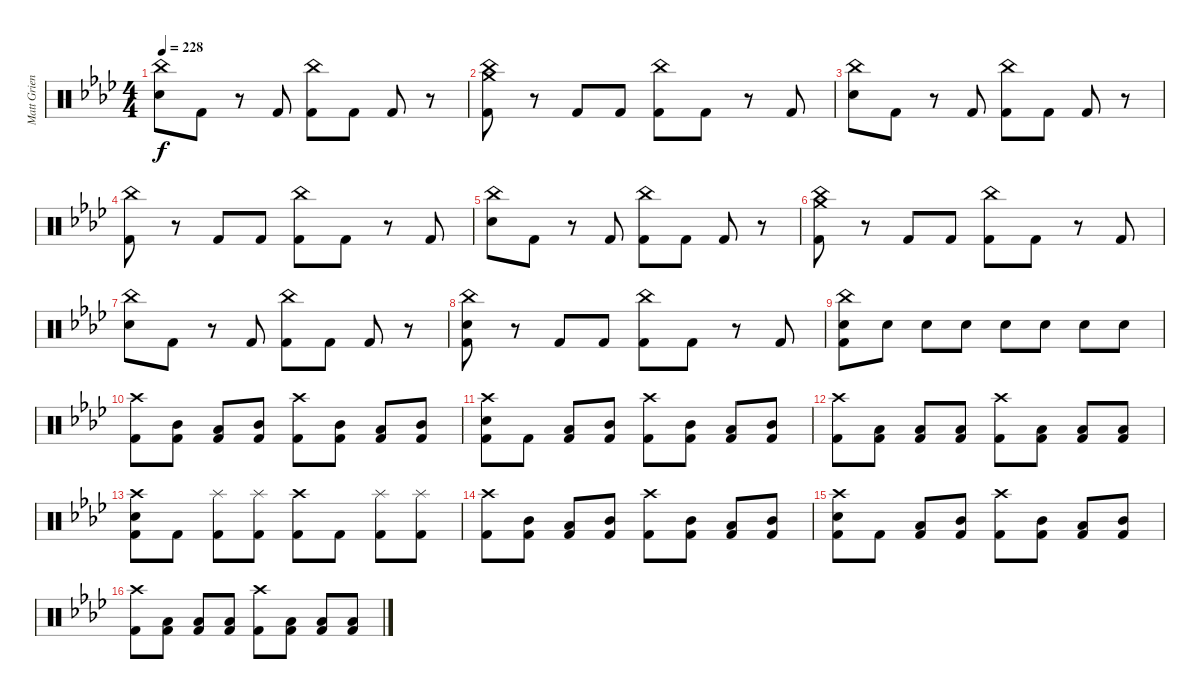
\track ("Matt Griener [Drum Kit]" "Matt Grien") {instrument percussion}
\staff {score}
\articulation defaults
\ts (4 4)
\tempo 228
\clef neutral
\ks fminor
("China (hit)" "Electric Snare (hit)").8{dy f} "Kick (hit) 2".8 r.8 "Kick (hit) 2".8 ("China (hit)" "Kick (hit) 2").8 "Kick (hit) 2".8 "Kick (hit) 2".8 r.8 |
("Crash medium (hit)" "China (hit)" "Kick (hit) 2").8 r.8 "Kick (hit) 2".8 "Kick (hit) 2".8 ("China (hit)" "Kick (hit) 2").8 "Kick (hit) 2".8 r.8 "Kick (hit) 2".8 |
("China (hit)" "Electric Snare (hit)").8 "Kick (hit) 2".8 r.8 "Kick (hit) 2".8 ("China (hit)" "Kick (hit) 2").8 "Kick (hit) 2".8 "Kick (hit) 2".8 r.8 |
("China (hit)" "Kick (hit) 2").8 r.8 "Kick (hit) 2".8 "Kick (hit) 2".8 ("China (hit)" "Kick (hit) 2").8 "Kick (hit) 2".8 r.8 "Kick (hit) 2".8 |
("China (hit)" "Electric Snare (hit)").8 "Kick (hit) 2".8 r.8 "Kick (hit) 2".8 ("China (hit)" "Kick (hit) 2").8 "Kick (hit) 2".8 "Kick (hit) 2".8 r.8 |
("Crash medium (hit)" "China (hit)" "Kick (hit) 2").8 r.8 "Kick (hit) 2".8 "Kick (hit) 2".8 ("China (hit)" "Kick (hit) 2").8 "Kick (hit) 2".8 r.8 "Kick (hit) 2".8 |
("China (hit)" "Electric Snare (hit)").8 "Kick (hit) 2".8 r.8 "Kick (hit) 2".8 ("China (hit)" "Kick (hit) 2").8 "Kick (hit) 2".8 "Kick (hit) 2".8 r.8 |
("China (hit)" "Electric Snare (hit)" "Kick (hit) 2").8 r.8 "Kick (hit) 2".8 "Kick (hit) 2".8 ("China (hit)" "Kick (hit) 2").8 "Kick (hit) 2".8 r.8 "Kick (hit) 2".8 |
("China (hit)" "Electric Snare (hit)" "Kick (hit) 2").8 "Electric Snare (hit)".8 "Electric Snare (hit)".8 "Electric Snare (hit)".8 "Electric Snare (hit)".8 "Electric Snare (hit)".8 "Electric Snare (hit)".8 "Electric Snare (hit)".8 |
("Crash high (hit)" "Kick (hit) 2").8 ("Mid Tom (hit)" "Kick (hit) 2").8 ("Low Tom (hit)" "Kick (hit) 2").8 ("Mid Tom (hit)" "Kick (hit) 2").8 ("Crash high (hit)" "Kick (hit) 2").8 ("Mid Tom (hit)" "Kick (hit) 2").8 ("Low Tom (hit)" "Kick (hit) 2").8 ("Mid Tom (hit)" "Kick (hit) 2").8 |
("Crash high (hit)" "Electric Snare (hit)" "Kick (hit) 2").8 "Kick (hit) 2".8 ("Low Tom (hit)" "Kick (hit) 2").8 ("Mid Tom (hit)" "Kick (hit) 2").8 ("Crash high (hit)" "Kick (hit) 2").8 ("Mid Tom (hit)" "Kick (hit) 2").8 ("Low Tom (hit)" "Kick (hit) 2").8 ("Mid Tom (hit)" "Kick (hit) 2").8 |
("Crash high (hit)" "Kick (hit) 2").8 ("Low Tom (hit)" "Kick (hit) 2").8 ("Low Floor Tom (hit)" "Kick (hit) 2").8 ("Low Tom (hit)" "Kick (hit) 2").8 ("Crash high (hit)" "Kick (hit) 2").8 ("Low Tom (hit)" "Kick (hit) 2").8 ("Low Floor Tom (hit)" "Kick (hit) 2").8 ("Low Tom (hit)" "Kick (hit) 2").8 |
("Crash high (hit)" "Electric Snare (hit)" "Kick (hit) 2").8 "Kick (hit) 2".8 ("Splash (hit)" "Kick (hit) 2").8 ("Splash (hit)" "Kick (hit) 2").8 ("Crash high (hit)" "Kick (hit) 2").8 "Kick (hit) 2".8 ("Splash (hit)" "Kick (hit) 2").8 ("Splash (hit)" "Kick (hit) 2").8 |
("Crash high (hit)" "Kick (hit) 2").8 ("Mid Tom (hit)" "Kick (hit) 2").8 ("Low Tom (hit)" "Kick (hit) 2").8 ("Mid Tom (hit)" "Kick (hit) 2").8 ("Crash high (hit)" "Kick (hit) 2").8 ("Mid Tom (hit)" "Kick (hit) 2").8 ("Low Tom (hit)" "Kick (hit) 2").8 ("Mid Tom (hit)" "Kick (hit) 2").8 |
("Crash high (hit)" "Electric Snare (hit)" "Kick (hit) 2").8 "Kick (hit) 2".8 ("Low Tom (hit)" "Kick (hit) 2").8 ("Mid Tom (hit)" "Kick (hit) 2").8 ("Crash high (hit)" "Kick (hit) 2").8 ("Mid Tom (hit)" "Kick (hit) 2").8 ("Low Tom (hit)" "Kick (hit) 2").8 ("Mid Tom (hit)" "Kick (hit) 2").8 |
("Crash high (hit)" "Kick (hit) 2").8 ("Low Tom (hit)" "Kick (hit) 2").8 ("Low Floor Tom (hit)" "Kick (hit) 2").8 ("Low Tom (hit)" "Kick (hit) 2").8 ("Crash high (hit)" "Kick (hit) 2").8 ("Low Tom (hit)" "Kick (hit) 2").8 ("Low Floor Tom (hit)" "Kick (hit) 2").8 ("Low Tom (hit)" "Kick (hit) 2").8
